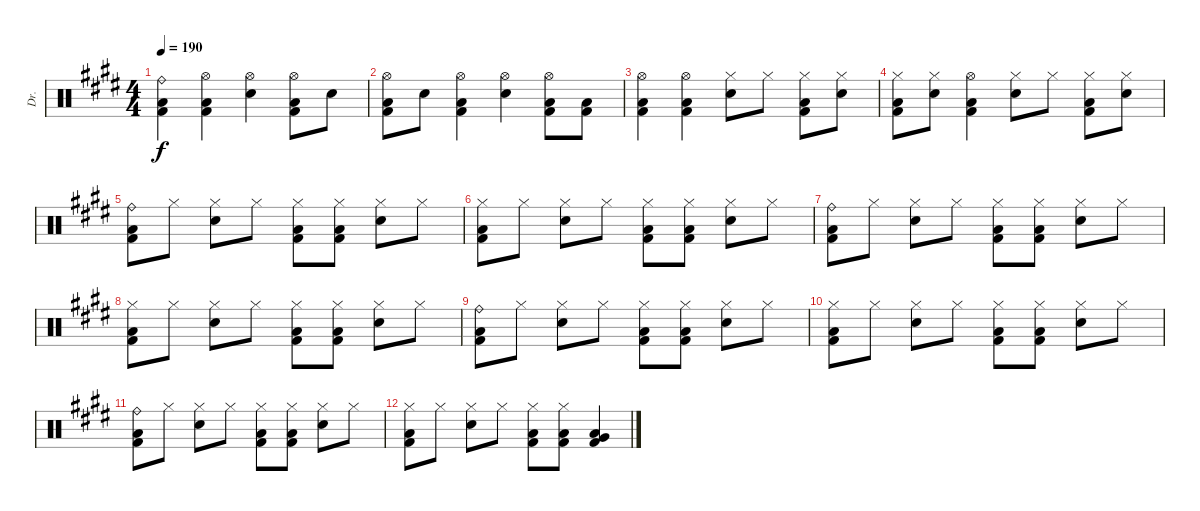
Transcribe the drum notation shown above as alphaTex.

\track ("Dr." "Dr.") {instrument percussion}
\staff {score}
\articulation defaults
\ts (4 4)
\tempo 190
\clef neutral
\ks e
("Ride (bell)" "Low Floor Tom (hit)" "Kick (hit) 2").4{dy f} ("Hi-Hat (open)" "Low Floor Tom (hit)" "Kick (hit) 2").4 ("Electric Snare (hit)" "Hi-Hat (open)").4 ("Hi-Hat (open)" "Low Floor Tom (hit)" "Kick (hit) 2").8 "Electric Snare (hit)".8 |
("Hi-Hat (open)" "Low Floor Tom (hit)" "Kick (hit) 2").8 "Electric Snare (hit)".8 ("Hi-Hat (open)" "Low Floor Tom (hit)" "Kick (hit) 2").4 ("Electric Snare (hit)" "Hi-Hat (open)").4 ("Hi-Hat (open)" "Low Floor Tom (hit)" "Kick (hit) 2").8 ("Low Floor Tom (hit)" "Kick (hit) 2").8 |
("Hi-Hat (open)" "Low Floor Tom (hit)" "Kick (hit) 2").4 ("Hi-Hat (open)" "Low Floor Tom (hit)" "Kick (hit) 2").4 ("Electric Snare (hit)" "Hi-Hat (closed)").8 "Hi-Hat (closed)".8 ("Hi-Hat (closed)" "Low Floor Tom (hit)" "Kick (hit) 2").8 ("Electric Snare (hit)" "Hi-Hat (closed)").8 |
("Hi-Hat (closed)" "Low Floor Tom (hit)" "Kick (hit) 2").8 ("Electric Snare (hit)" "Hi-Hat (closed)").8 ("Hi-Hat (open)" "Low Floor Tom (hit)" "Kick (hit) 2").4 ("Electric Snare (hit)" "Hi-Hat (closed)").8 "Hi-Hat (closed)".8 ("Hi-Hat (closed)" "Low Floor Tom (hit)" "Kick (hit) 2").8 ("Electric Snare (hit)" "Hi-Hat (closed)").8 |
("Ride (bell)" "Low Floor Tom (hit)" "Kick (hit) 2").8 "Hi-Hat (closed)".8 ("Electric Snare (hit)" "Hi-Hat (closed)").8 "Hi-Hat (closed)".8 ("Hi-Hat (closed)" "Low Floor Tom (hit)" "Kick (hit) 2").8 ("Hi-Hat (closed)" "Low Floor Tom (hit)" "Kick (hit) 2").8 ("Electric Snare (hit)" "Hi-Hat (closed)").8 "Hi-Hat (closed)".8 |
("Hi-Hat (closed)" "Low Floor Tom (hit)" "Kick (hit) 2").8 "Hi-Hat (closed)".8 ("Electric Snare (hit)" "Hi-Hat (closed)").8 "Hi-Hat (closed)".8 ("Hi-Hat (closed)" "Low Floor Tom (hit)" "Kick (hit) 2").8 ("Hi-Hat (closed)" "Low Floor Tom (hit)" "Kick (hit) 2").8 ("Electric Snare (hit)" "Hi-Hat (closed)").8 "Hi-Hat (closed)".8 |
("Ride (bell)" "Low Floor Tom (hit)" "Kick (hit) 2").8 "Hi-Hat (closed)".8 ("Electric Snare (hit)" "Hi-Hat (closed)").8 "Hi-Hat (closed)".8 ("Hi-Hat (closed)" "Low Floor Tom (hit)" "Kick (hit) 2").8 ("Hi-Hat (closed)" "Low Floor Tom (hit)" "Kick (hit) 2").8 ("Electric Snare (hit)" "Hi-Hat (closed)").8 "Hi-Hat (closed)".8 |
("Hi-Hat (closed)" "Low Floor Tom (hit)" "Kick (hit) 2").8 "Hi-Hat (closed)".8 ("Electric Snare (hit)" "Hi-Hat (closed)").8 "Hi-Hat (closed)".8 ("Hi-Hat (closed)" "Low Floor Tom (hit)" "Kick (hit) 2").8 ("Hi-Hat (closed)" "Low Floor Tom (hit)" "Kick (hit) 2").8 ("Electric Snare (hit)" "Hi-Hat (closed)").8 "Hi-Hat (closed)".8 |
("Ride (bell)" "Low Floor Tom (hit)" "Kick (hit) 2").8 "Hi-Hat (closed)".8 ("Electric Snare (hit)" "Hi-Hat (closed)").8 "Hi-Hat (closed)".8 ("Hi-Hat (closed)" "Low Floor Tom (hit)" "Kick (hit) 2").8 ("Hi-Hat (closed)" "Low Floor Tom (hit)" "Kick (hit) 2").8 ("Electric Snare (hit)" "Hi-Hat (closed)").8 "Hi-Hat (closed)".8 |
("Hi-Hat (closed)" "Low Floor Tom (hit)" "Kick (hit) 2").8 "Hi-Hat (closed)".8 ("Electric Snare (hit)" "Hi-Hat (closed)").8 "Hi-Hat (closed)".8 ("Hi-Hat (closed)" "Low Floor Tom (hit)" "Kick (hit) 2").8 ("Hi-Hat (closed)" "Low Floor Tom (hit)" "Kick (hit) 2").8 ("Electric Snare (hit)" "Hi-Hat (closed)").8 "Hi-Hat (closed)".8 |
("Ride (bell)" "Low Floor Tom (hit)" "Kick (hit) 2").8 "Hi-Hat (closed)".8 ("Electric Snare (hit)" "Hi-Hat (closed)").8 "Hi-Hat (closed)".8 ("Hi-Hat (closed)" "Low Floor Tom (hit)" "Kick (hit) 2").8 ("Hi-Hat (closed)" "Low Floor Tom (hit)" "Kick (hit) 2").8 ("Electric Snare (hit)" "Hi-Hat (closed)").8 "Hi-Hat (closed)".8 |
("Hi-Hat (closed)" "Low Floor Tom (hit)" "Kick (hit) 2").8 "Hi-Hat (closed)".8 ("Electric Snare (hit)" "Hi-Hat (closed)").8 "Hi-Hat (closed)".8 ("Hi-Hat (closed)" "Low Floor Tom (hit)" "Kick (hit) 2").8 ("Hi-Hat (closed)" "Low Floor Tom (hit)" "Kick (hit) 2").8 ("Very Low Tom (hit)" "Low Floor Tom (hit)" "Kick (hit) 2").4
